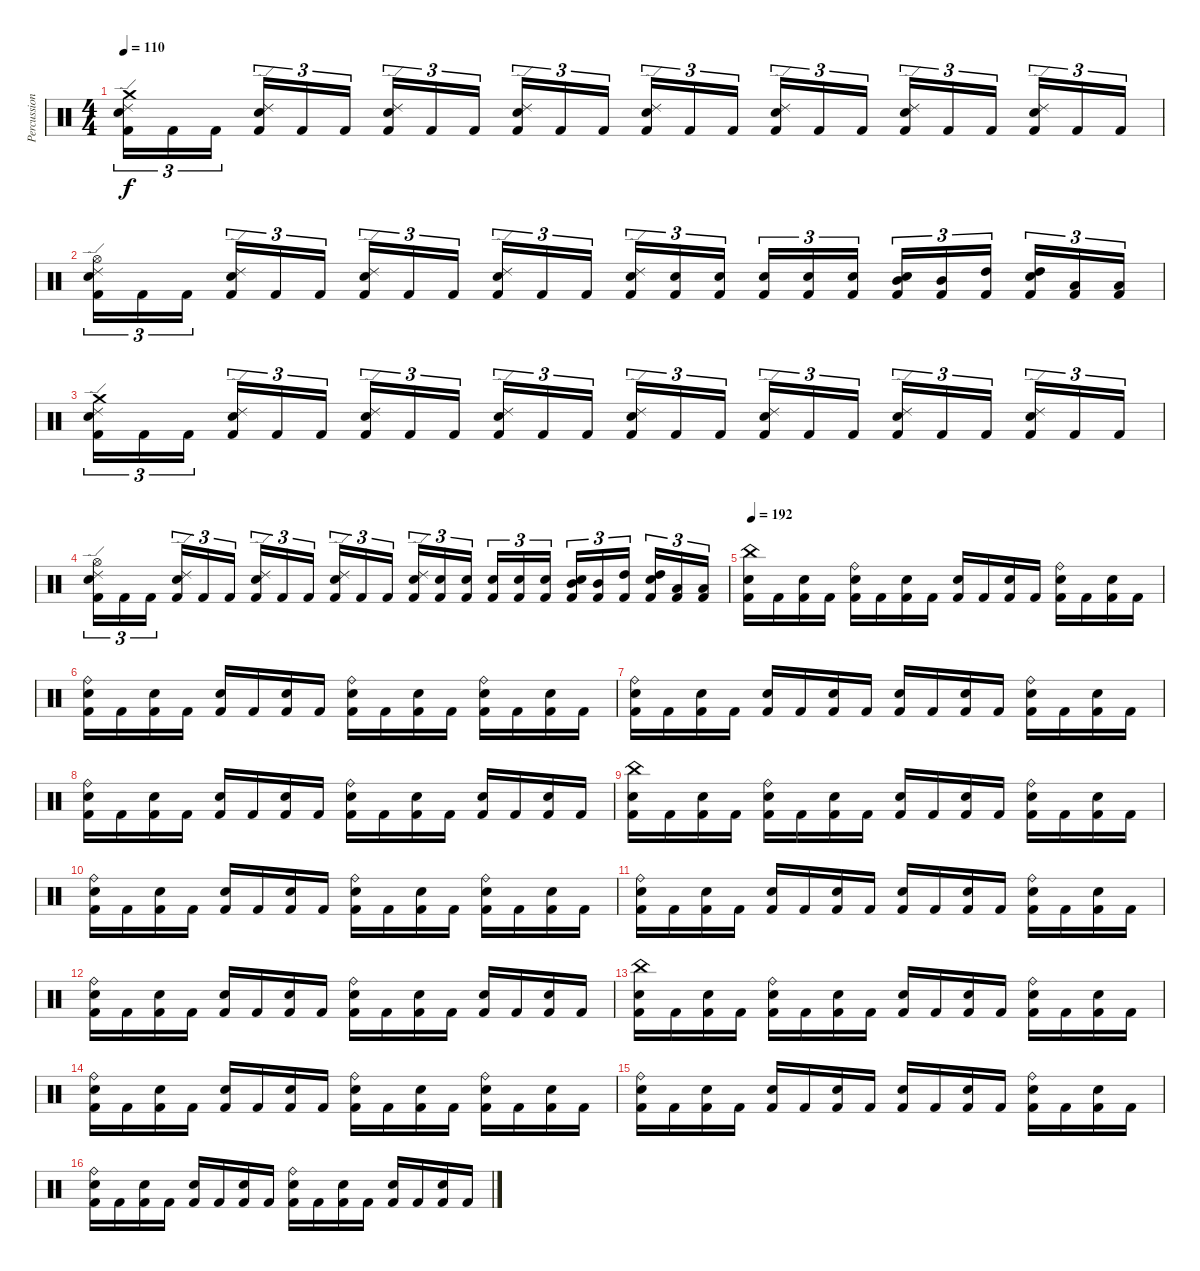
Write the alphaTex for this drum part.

\track ("Percussion" "Percussion") {instrument percussion}
\staff {score}
\articulation defaults
\ts (4 4)
\tempo 110
\clef neutral
\ks c
("Crash medium (hit)" "Ride (edge) 2" "Electric Snare (hit)" "Kick (hit) 2").16{tu (3 2) dy f} "Kick (hit) 2".16{tu (3 2)} "Kick (hit) 2".16{tu (3 2) beam splitsecondary} ("Ride (edge) 2" "Electric Snare (hit)" "Kick (hit) 2").16{tu (3 2)} "Kick (hit) 2".16{tu (3 2)} "Kick (hit) 2".16{tu (3 2)} ("Ride (edge) 2" "Electric Snare (hit)" "Kick (hit) 2").16{tu (3 2)} "Kick (hit) 2".16{tu (3 2)} "Kick (hit) 2".16{tu (3 2) beam splitsecondary} ("Ride (edge) 2" "Electric Snare (hit)" "Kick (hit) 2").16{tu (3 2)} "Kick (hit) 2".16{tu (3 2)} "Kick (hit) 2".16{tu (3 2)} ("Ride (edge) 2" "Electric Snare (hit)" "Kick (hit) 2").16{tu (3 2)} "Kick (hit) 2".16{tu (3 2)} "Kick (hit) 2".16{tu (3 2) beam splitsecondary} ("Ride (edge) 2" "Electric Snare (hit)" "Kick (hit) 2").16{tu (3 2)} "Kick (hit) 2".16{tu (3 2)} "Kick (hit) 2".16{tu (3 2)} ("Ride (edge) 2" "Electric Snare (hit)" "Kick (hit) 2").16{tu (3 2)} "Kick (hit) 2".16{tu (3 2)} "Kick (hit) 2".16{tu (3 2) beam splitsecondary} ("Ride (edge) 2" "Electric Snare (hit)" "Kick (hit) 2").16{tu (3 2)} "Kick (hit) 2".16{tu (3 2)} "Kick (hit) 2".16{tu (3 2)} |
("Hi-Hat (open)" "Ride (edge) 2" "Electric Snare (hit)" "Kick (hit) 2").16{tu (3 2)} "Kick (hit) 2".16{tu (3 2)} "Kick (hit) 2".16{tu (3 2) beam splitsecondary} ("Ride (edge) 2" "Electric Snare (hit)" "Kick (hit) 2").16{tu (3 2)} "Kick (hit) 2".16{tu (3 2)} "Kick (hit) 2".16{tu (3 2)} ("Ride (edge) 2" "Electric Snare (hit)" "Kick (hit) 2").16{tu (3 2)} "Kick (hit) 2".16{tu (3 2)} "Kick (hit) 2".16{tu (3 2) beam splitsecondary} ("Ride (edge) 2" "Electric Snare (hit)" "Kick (hit) 2").16{tu (3 2)} "Kick (hit) 2".16{tu (3 2)} "Kick (hit) 2".16{tu (3 2)} ("Ride (edge) 2" "Electric Snare (hit)" "Kick (hit) 2").16{tu (3 2)} ("Electric Snare (hit)" "Kick (hit) 2").16{tu (3 2)} ("Electric Snare (hit)" "Kick (hit) 2").16{tu (3 2) beam splitsecondary} ("Electric Snare (hit)" "Kick (hit) 2").16{tu (3 2)} ("Electric Snare (hit)" "Kick (hit) 2").16{tu (3 2)} ("Electric Snare (hit)" "Kick (hit) 2").16{tu (3 2)} ("Electric Snare (hit)" "Mid Tom (hit)" "Kick (hit) 2").16{tu (3 2)} ("Mid Tom (hit)" "Kick (hit) 2").16{tu (3 2)} ("High Tom (hit)" "Kick (hit) 2").16{tu (3 2) beam splitsecondary} ("Electric Snare (hit)" "High Tom (hit)" "Kick (hit) 2").16{tu (3 2)} ("Low Tom (hit)" "Kick (hit) 2").16{tu (3 2)} ("Low Tom (hit)" "Kick (hit) 2").16{tu (3 2)} |
("Crash medium (hit)" "Ride (edge) 2" "Electric Snare (hit)" "Kick (hit) 2").16{tu (3 2)} "Kick (hit) 2".16{tu (3 2)} "Kick (hit) 2".16{tu (3 2) beam splitsecondary} ("Ride (edge) 2" "Electric Snare (hit)" "Kick (hit) 2").16{tu (3 2)} "Kick (hit) 2".16{tu (3 2)} "Kick (hit) 2".16{tu (3 2)} ("Ride (edge) 2" "Electric Snare (hit)" "Kick (hit) 2").16{tu (3 2)} "Kick (hit) 2".16{tu (3 2)} "Kick (hit) 2".16{tu (3 2) beam splitsecondary} ("Ride (edge) 2" "Electric Snare (hit)" "Kick (hit) 2").16{tu (3 2)} "Kick (hit) 2".16{tu (3 2)} "Kick (hit) 2".16{tu (3 2)} ("Ride (edge) 2" "Electric Snare (hit)" "Kick (hit) 2").16{tu (3 2)} "Kick (hit) 2".16{tu (3 2)} "Kick (hit) 2".16{tu (3 2) beam splitsecondary} ("Ride (edge) 2" "Electric Snare (hit)" "Kick (hit) 2").16{tu (3 2)} "Kick (hit) 2".16{tu (3 2)} "Kick (hit) 2".16{tu (3 2)} ("Ride (edge) 2" "Electric Snare (hit)" "Kick (hit) 2").16{tu (3 2)} "Kick (hit) 2".16{tu (3 2)} "Kick (hit) 2".16{tu (3 2) beam splitsecondary} ("Ride (edge) 2" "Electric Snare (hit)" "Kick (hit) 2").16{tu (3 2)} "Kick (hit) 2".16{tu (3 2)} "Kick (hit) 2".16{tu (3 2)} |
("Hi-Hat (open)" "Ride (edge) 2" "Electric Snare (hit)" "Kick (hit) 2").16{tu (3 2)} "Kick (hit) 2".16{tu (3 2)} "Kick (hit) 2".16{tu (3 2) beam splitsecondary} ("Ride (edge) 2" "Electric Snare (hit)" "Kick (hit) 2").16{tu (3 2)} "Kick (hit) 2".16{tu (3 2)} "Kick (hit) 2".16{tu (3 2)} ("Ride (edge) 2" "Electric Snare (hit)" "Kick (hit) 2").16{tu (3 2)} "Kick (hit) 2".16{tu (3 2)} "Kick (hit) 2".16{tu (3 2) beam splitsecondary} ("Ride (edge) 2" "Electric Snare (hit)" "Kick (hit) 2").16{tu (3 2)} "Kick (hit) 2".16{tu (3 2)} "Kick (hit) 2".16{tu (3 2)} ("Ride (edge) 2" "Electric Snare (hit)" "Kick (hit) 2").16{tu (3 2)} ("Electric Snare (hit)" "Kick (hit) 2").16{tu (3 2)} ("Electric Snare (hit)" "Kick (hit) 2").16{tu (3 2) beam splitsecondary} ("Electric Snare (hit)" "Kick (hit) 2").16{tu (3 2)} ("Electric Snare (hit)" "Kick (hit) 2").16{tu (3 2)} ("Electric Snare (hit)" "Kick (hit) 2").16{tu (3 2)} ("Electric Snare (hit)" "Mid Tom (hit)" "Kick (hit) 2").16{tu (3 2)} ("Mid Tom (hit)" "Kick (hit) 2").16{tu (3 2)} ("High Tom (hit)" "Kick (hit) 2").16{tu (3 2) beam splitsecondary} ("Electric Snare (hit)" "High Tom (hit)" "Kick (hit) 2").16{tu (3 2)} ("Low Tom (hit)" "Kick (hit) 2").16{tu (3 2)} ("Low Tom (hit)" "Kick (hit) 2").16{tu (3 2)} |
\tempo 192
("China (hit)" "Electric Snare (hit)" "Kick (hit) 2").16 "Kick (hit) 2".16 ("Electric Snare (hit)" "Kick (hit) 2").16 "Kick (hit) 2".16 ("Ride (bell)" "Electric Snare (hit)" "Kick (hit) 2").16 "Kick (hit) 2".16 ("Electric Snare (hit)" "Kick (hit) 2").16 "Kick (hit) 2".16 ("Electric Snare (hit)" "Kick (hit) 2").16 "Kick (hit) 2".16 ("Electric Snare (hit)" "Kick (hit) 2").16 "Kick (hit) 2".16 ("Ride (bell)" "Electric Snare (hit)" "Kick (hit) 2").16 "Kick (hit) 2".16 ("Electric Snare (hit)" "Kick (hit) 2").16 "Kick (hit) 2".16 |
("Ride (bell)" "Electric Snare (hit)" "Kick (hit) 2").16 "Kick (hit) 2".16 ("Electric Snare (hit)" "Kick (hit) 2").16 "Kick (hit) 2".16 ("Electric Snare (hit)" "Kick (hit) 2").16 "Kick (hit) 2".16 ("Electric Snare (hit)" "Kick (hit) 2").16 "Kick (hit) 2".16 ("Ride (bell)" "Electric Snare (hit)" "Kick (hit) 2").16 "Kick (hit) 2".16 ("Electric Snare (hit)" "Kick (hit) 2").16 "Kick (hit) 2".16 ("Ride (bell)" "Electric Snare (hit)" "Kick (hit) 2").16 "Kick (hit) 2".16 ("Electric Snare (hit)" "Kick (hit) 2").16 "Kick (hit) 2".16 |
("Ride (bell)" "Electric Snare (hit)" "Kick (hit) 2").16 "Kick (hit) 2".16 ("Electric Snare (hit)" "Kick (hit) 2").16 "Kick (hit) 2".16 ("Electric Snare (hit)" "Kick (hit) 2").16 "Kick (hit) 2".16 ("Electric Snare (hit)" "Kick (hit) 2").16 "Kick (hit) 2".16 ("Electric Snare (hit)" "Kick (hit) 2").16 "Kick (hit) 2".16 ("Electric Snare (hit)" "Kick (hit) 2").16 "Kick (hit) 2".16 ("Ride (bell)" "Electric Snare (hit)" "Kick (hit) 2").16 "Kick (hit) 2".16 ("Electric Snare (hit)" "Kick (hit) 2").16 "Kick (hit) 2".16 |
("Ride (bell)" "Electric Snare (hit)" "Kick (hit) 2").16 "Kick (hit) 2".16 ("Electric Snare (hit)" "Kick (hit) 2").16 "Kick (hit) 2".16 ("Electric Snare (hit)" "Kick (hit) 2").16 "Kick (hit) 2".16 ("Electric Snare (hit)" "Kick (hit) 2").16 "Kick (hit) 2".16 ("Ride (bell)" "Electric Snare (hit)" "Kick (hit) 2").16 "Kick (hit) 2".16 ("Electric Snare (hit)" "Kick (hit) 2").16 "Kick (hit) 2".16 ("Electric Snare (hit)" "Kick (hit) 2").16 "Kick (hit) 2".16 ("Electric Snare (hit)" "Kick (hit) 2").16 "Kick (hit) 2".16 |
("China (hit)" "Electric Snare (hit)" "Kick (hit) 2").16 "Kick (hit) 2".16 ("Electric Snare (hit)" "Kick (hit) 2").16 "Kick (hit) 2".16 ("Ride (bell)" "Electric Snare (hit)" "Kick (hit) 2").16 "Kick (hit) 2".16 ("Electric Snare (hit)" "Kick (hit) 2").16 "Kick (hit) 2".16 ("Electric Snare (hit)" "Kick (hit) 2").16 "Kick (hit) 2".16 ("Electric Snare (hit)" "Kick (hit) 2").16 "Kick (hit) 2".16 ("Ride (bell)" "Electric Snare (hit)" "Kick (hit) 2").16 "Kick (hit) 2".16 ("Electric Snare (hit)" "Kick (hit) 2").16 "Kick (hit) 2".16 |
("Ride (bell)" "Electric Snare (hit)" "Kick (hit) 2").16 "Kick (hit) 2".16 ("Electric Snare (hit)" "Kick (hit) 2").16 "Kick (hit) 2".16 ("Electric Snare (hit)" "Kick (hit) 2").16 "Kick (hit) 2".16 ("Electric Snare (hit)" "Kick (hit) 2").16 "Kick (hit) 2".16 ("Ride (bell)" "Electric Snare (hit)" "Kick (hit) 2").16 "Kick (hit) 2".16 ("Electric Snare (hit)" "Kick (hit) 2").16 "Kick (hit) 2".16 ("Ride (bell)" "Electric Snare (hit)" "Kick (hit) 2").16 "Kick (hit) 2".16 ("Electric Snare (hit)" "Kick (hit) 2").16 "Kick (hit) 2".16 |
("Ride (bell)" "Electric Snare (hit)" "Kick (hit) 2").16 "Kick (hit) 2".16 ("Electric Snare (hit)" "Kick (hit) 2").16 "Kick (hit) 2".16 ("Electric Snare (hit)" "Kick (hit) 2").16 "Kick (hit) 2".16 ("Electric Snare (hit)" "Kick (hit) 2").16 "Kick (hit) 2".16 ("Electric Snare (hit)" "Kick (hit) 2").16 "Kick (hit) 2".16 ("Electric Snare (hit)" "Kick (hit) 2").16 "Kick (hit) 2".16 ("Ride (bell)" "Electric Snare (hit)" "Kick (hit) 2").16 "Kick (hit) 2".16 ("Electric Snare (hit)" "Kick (hit) 2").16 "Kick (hit) 2".16 |
("Ride (bell)" "Electric Snare (hit)" "Kick (hit) 2").16 "Kick (hit) 2".16 ("Electric Snare (hit)" "Kick (hit) 2").16 "Kick (hit) 2".16 ("Electric Snare (hit)" "Kick (hit) 2").16 "Kick (hit) 2".16 ("Electric Snare (hit)" "Kick (hit) 2").16 "Kick (hit) 2".16 ("Ride (bell)" "Electric Snare (hit)" "Kick (hit) 2").16 "Kick (hit) 2".16 ("Electric Snare (hit)" "Kick (hit) 2").16 "Kick (hit) 2".16 ("Electric Snare (hit)" "Kick (hit) 2").16 "Kick (hit) 2".16 ("Electric Snare (hit)" "Kick (hit) 2").16 "Kick (hit) 2".16 |
("China (hit)" "Electric Snare (hit)" "Kick (hit) 2").16 "Kick (hit) 2".16 ("Electric Snare (hit)" "Kick (hit) 2").16 "Kick (hit) 2".16 ("Ride (bell)" "Electric Snare (hit)" "Kick (hit) 2").16 "Kick (hit) 2".16 ("Electric Snare (hit)" "Kick (hit) 2").16 "Kick (hit) 2".16 ("Electric Snare (hit)" "Kick (hit) 2").16 "Kick (hit) 2".16 ("Electric Snare (hit)" "Kick (hit) 2").16 "Kick (hit) 2".16 ("Ride (bell)" "Electric Snare (hit)" "Kick (hit) 2").16 "Kick (hit) 2".16 ("Electric Snare (hit)" "Kick (hit) 2").16 "Kick (hit) 2".16 |
("Ride (bell)" "Electric Snare (hit)" "Kick (hit) 2").16 "Kick (hit) 2".16 ("Electric Snare (hit)" "Kick (hit) 2").16 "Kick (hit) 2".16 ("Electric Snare (hit)" "Kick (hit) 2").16 "Kick (hit) 2".16 ("Electric Snare (hit)" "Kick (hit) 2").16 "Kick (hit) 2".16 ("Ride (bell)" "Electric Snare (hit)" "Kick (hit) 2").16 "Kick (hit) 2".16 ("Electric Snare (hit)" "Kick (hit) 2").16 "Kick (hit) 2".16 ("Ride (bell)" "Electric Snare (hit)" "Kick (hit) 2").16 "Kick (hit) 2".16 ("Electric Snare (hit)" "Kick (hit) 2").16 "Kick (hit) 2".16 |
("Ride (bell)" "Electric Snare (hit)" "Kick (hit) 2").16 "Kick (hit) 2".16 ("Electric Snare (hit)" "Kick (hit) 2").16 "Kick (hit) 2".16 ("Electric Snare (hit)" "Kick (hit) 2").16 "Kick (hit) 2".16 ("Electric Snare (hit)" "Kick (hit) 2").16 "Kick (hit) 2".16 ("Electric Snare (hit)" "Kick (hit) 2").16 "Kick (hit) 2".16 ("Electric Snare (hit)" "Kick (hit) 2").16 "Kick (hit) 2".16 ("Ride (bell)" "Electric Snare (hit)" "Kick (hit) 2").16 "Kick (hit) 2".16 ("Electric Snare (hit)" "Kick (hit) 2").16 "Kick (hit) 2".16 |
("Ride (bell)" "Electric Snare (hit)" "Kick (hit) 2").16 "Kick (hit) 2".16 ("Electric Snare (hit)" "Kick (hit) 2").16 "Kick (hit) 2".16 ("Electric Snare (hit)" "Kick (hit) 2").16 "Kick (hit) 2".16 ("Electric Snare (hit)" "Kick (hit) 2").16 "Kick (hit) 2".16 ("Ride (bell)" "Electric Snare (hit)" "Kick (hit) 2").16 "Kick (hit) 2".16 ("Electric Snare (hit)" "Kick (hit) 2").16 "Kick (hit) 2".16 ("Electric Snare (hit)" "Kick (hit) 2").16 "Kick (hit) 2".16 ("Electric Snare (hit)" "Kick (hit) 2").16 "Kick (hit) 2".16
